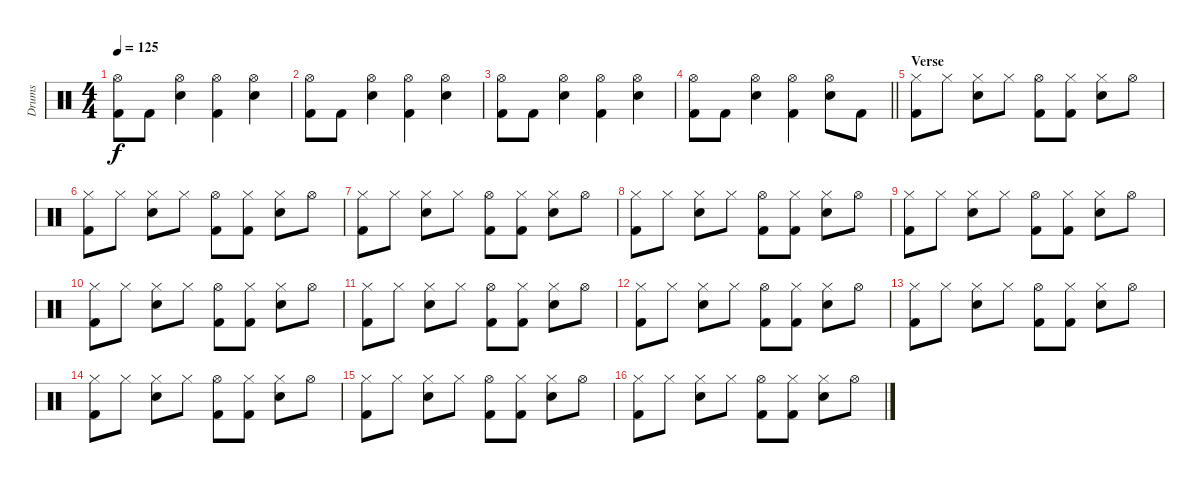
\track ("Drums" "Drums") {instrument percussion}
\staff {score}
\articulation defaults
\ts (4 4)
\tempo 125
\clef neutral
\ks c
("Hi-Hat (open)" "Kick (hit) 2").8{dy f} "Kick (hit) 2".8 ("Hi-Hat (open)" "Electric Snare (hit)").4 ("Hi-Hat (open)" "Kick (hit) 2").4 ("Hi-Hat (open)" "Electric Snare (hit)").4 |
("Hi-Hat (open)" "Kick (hit) 2").8 "Kick (hit) 2".8 ("Hi-Hat (open)" "Electric Snare (hit)").4 ("Hi-Hat (open)" "Kick (hit) 2").4 ("Hi-Hat (open)" "Electric Snare (hit)").4 |
("Hi-Hat (open)" "Kick (hit) 2").8 "Kick (hit) 2".8 ("Hi-Hat (open)" "Electric Snare (hit)").4 ("Hi-Hat (open)" "Kick (hit) 2").4 ("Hi-Hat (open)" "Electric Snare (hit)").4 |
\barLineRight lightlight
("Hi-Hat (open)" "Kick (hit) 2").8 "Kick (hit) 2".8 ("Hi-Hat (open)" "Electric Snare (hit)").4 ("Hi-Hat (open)" "Kick (hit) 2").4 ("Hi-Hat (open)" "Electric Snare (hit)").8 "Kick (hit) 2".8 |
\section ("" "Verse")
("Hi-Hat (closed)" "Kick (hit) 2").8 "Hi-Hat (closed)".8 ("Hi-Hat (closed)" "Electric Snare (hit)").8 "Hi-Hat (closed)".8 ("Hi-Hat (open)" "Kick (hit) 2").8 ("Hi-Hat (closed)" "Kick (hit) 2").8 ("Hi-Hat (closed)" "Electric Snare (hit)").8 "Hi-Hat (open)".8 |
("Hi-Hat (closed)" "Kick (hit) 2").8 "Hi-Hat (closed)".8 ("Hi-Hat (closed)" "Electric Snare (hit)").8 "Hi-Hat (closed)".8 ("Hi-Hat (open)" "Kick (hit) 2").8 ("Hi-Hat (closed)" "Kick (hit) 2").8 ("Hi-Hat (closed)" "Electric Snare (hit)").8 "Hi-Hat (open)".8 |
("Hi-Hat (closed)" "Kick (hit) 2").8 "Hi-Hat (closed)".8 ("Hi-Hat (closed)" "Electric Snare (hit)").8 "Hi-Hat (closed)".8 ("Hi-Hat (open)" "Kick (hit) 2").8 ("Hi-Hat (closed)" "Kick (hit) 2").8 ("Hi-Hat (closed)" "Electric Snare (hit)").8 "Hi-Hat (open)".8 |
("Hi-Hat (closed)" "Kick (hit) 2").8 "Hi-Hat (closed)".8 ("Hi-Hat (closed)" "Electric Snare (hit)").8 "Hi-Hat (closed)".8 ("Hi-Hat (open)" "Kick (hit) 2").8 ("Hi-Hat (closed)" "Kick (hit) 2").8 ("Hi-Hat (closed)" "Electric Snare (hit)").8 "Hi-Hat (open)".8 |
("Hi-Hat (closed)" "Kick (hit) 2").8 "Hi-Hat (closed)".8 ("Hi-Hat (closed)" "Electric Snare (hit)").8 "Hi-Hat (closed)".8 ("Hi-Hat (open)" "Kick (hit) 2").8 ("Hi-Hat (closed)" "Kick (hit) 2").8 ("Hi-Hat (closed)" "Electric Snare (hit)").8 "Hi-Hat (open)".8 |
("Hi-Hat (closed)" "Kick (hit) 2").8 "Hi-Hat (closed)".8 ("Hi-Hat (closed)" "Electric Snare (hit)").8 "Hi-Hat (closed)".8 ("Hi-Hat (open)" "Kick (hit) 2").8 ("Hi-Hat (closed)" "Kick (hit) 2").8 ("Hi-Hat (closed)" "Electric Snare (hit)").8 "Hi-Hat (open)".8 |
("Hi-Hat (closed)" "Kick (hit) 2").8 "Hi-Hat (closed)".8 ("Hi-Hat (closed)" "Electric Snare (hit)").8 "Hi-Hat (closed)".8 ("Hi-Hat (open)" "Kick (hit) 2").8 ("Hi-Hat (closed)" "Kick (hit) 2").8 ("Hi-Hat (closed)" "Electric Snare (hit)").8 "Hi-Hat (open)".8 |
("Hi-Hat (closed)" "Kick (hit) 2").8 "Hi-Hat (closed)".8 ("Hi-Hat (closed)" "Electric Snare (hit)").8 "Hi-Hat (closed)".8 ("Hi-Hat (open)" "Kick (hit) 2").8 ("Hi-Hat (closed)" "Kick (hit) 2").8 ("Hi-Hat (closed)" "Electric Snare (hit)").8 "Hi-Hat (open)".8 |
("Hi-Hat (closed)" "Kick (hit) 2").8 "Hi-Hat (closed)".8 ("Hi-Hat (closed)" "Electric Snare (hit)").8 "Hi-Hat (closed)".8 ("Hi-Hat (open)" "Kick (hit) 2").8 ("Hi-Hat (closed)" "Kick (hit) 2").8 ("Hi-Hat (closed)" "Electric Snare (hit)").8 "Hi-Hat (open)".8 |
("Hi-Hat (closed)" "Kick (hit) 2").8 "Hi-Hat (closed)".8 ("Hi-Hat (closed)" "Electric Snare (hit)").8 "Hi-Hat (closed)".8 ("Hi-Hat (open)" "Kick (hit) 2").8 ("Hi-Hat (closed)" "Kick (hit) 2").8 ("Hi-Hat (closed)" "Electric Snare (hit)").8 "Hi-Hat (open)".8 |
("Hi-Hat (closed)" "Kick (hit) 2").8 "Hi-Hat (closed)".8 ("Hi-Hat (closed)" "Electric Snare (hit)").8 "Hi-Hat (closed)".8 ("Hi-Hat (open)" "Kick (hit) 2").8 ("Hi-Hat (closed)" "Kick (hit) 2").8 ("Hi-Hat (closed)" "Electric Snare (hit)").8 "Hi-Hat (open)".8 |
("Hi-Hat (closed)" "Kick (hit) 2").8 "Hi-Hat (closed)".8 ("Hi-Hat (closed)" "Electric Snare (hit)").8 "Hi-Hat (closed)".8 ("Hi-Hat (open)" "Kick (hit) 2").8 ("Hi-Hat (closed)" "Kick (hit) 2").8 ("Hi-Hat (closed)" "Electric Snare (hit)").8 "Hi-Hat (open)".8
